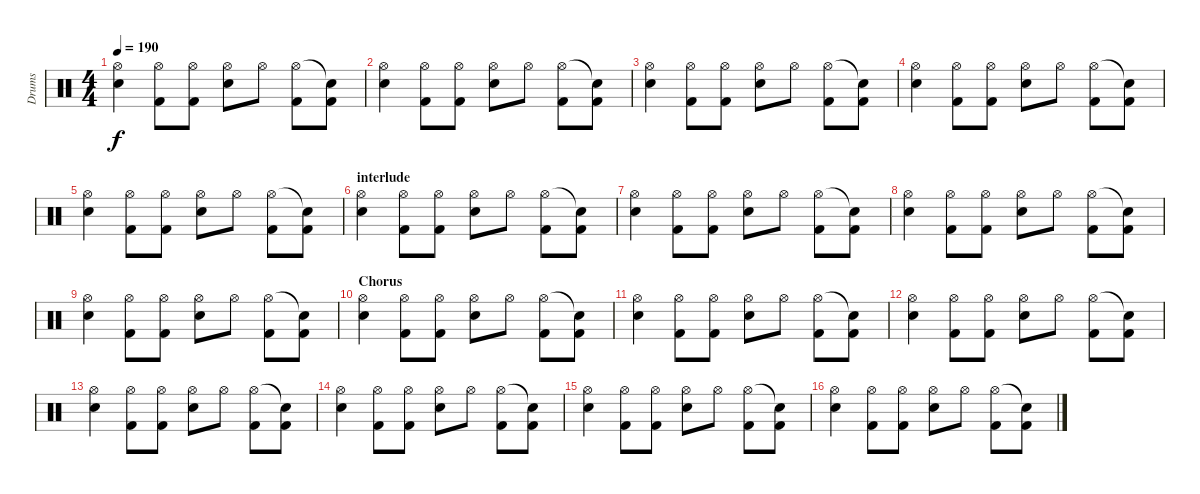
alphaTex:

\track ("Drums" "Drums") {instrument percussion}
\staff {score}
\articulation defaults
\ts (4 4)
\tempo 190
\clef neutral
\ks c
("Electric Snare (hit)" "Hi-Hat (open)").4{dy f} ("Hi-Hat (open)" "Kick (hit) 2").8 ("Hi-Hat (open)" "Kick (hit) 2").8 ("Hi-Hat (open)" "Electric Snare (hit)").8 "Hi-Hat (open)".8 ("Kick (hit) 2" "Hi-Hat (open)").8 ("Kick (hit) 2" "Snare (hit)"{t}).8 |
("Electric Snare (hit)" "Hi-Hat (open)").4 ("Hi-Hat (open)" "Kick (hit) 2").8 ("Hi-Hat (open)" "Kick (hit) 2").8 ("Hi-Hat (open)" "Electric Snare (hit)").8 "Hi-Hat (open)".8 ("Kick (hit) 2" "Hi-Hat (open)").8 ("Kick (hit) 2" "Snare (hit)"{t}).8 |
("Electric Snare (hit)" "Hi-Hat (open)").4 ("Hi-Hat (open)" "Kick (hit) 2").8 ("Hi-Hat (open)" "Kick (hit) 2").8 ("Hi-Hat (open)" "Electric Snare (hit)").8 "Hi-Hat (open)".8 ("Kick (hit) 2" "Hi-Hat (open)").8 ("Kick (hit) 2" "Snare (hit)"{t}).8 |
("Electric Snare (hit)" "Hi-Hat (open)").4 ("Hi-Hat (open)" "Kick (hit) 2").8 ("Hi-Hat (open)" "Kick (hit) 2").8 ("Hi-Hat (open)" "Electric Snare (hit)").8 "Hi-Hat (open)".8 ("Kick (hit) 2" "Hi-Hat (open)").8 ("Kick (hit) 2" "Snare (hit)"{t}).8 |
("Electric Snare (hit)" "Hi-Hat (open)").4 ("Hi-Hat (open)" "Kick (hit) 2").8 ("Hi-Hat (open)" "Kick (hit) 2").8 ("Hi-Hat (open)" "Electric Snare (hit)").8 "Hi-Hat (open)".8 ("Kick (hit) 2" "Hi-Hat (open)").8 ("Kick (hit) 2" "Snare (hit)"{t}).8 |
\section ("" "interlude")
("Electric Snare (hit)" "Hi-Hat (open)").4 ("Hi-Hat (open)" "Kick (hit) 2").8 ("Hi-Hat (open)" "Kick (hit) 2").8 ("Hi-Hat (open)" "Electric Snare (hit)").8 "Hi-Hat (open)".8 ("Kick (hit) 2" "Hi-Hat (open)").8 ("Kick (hit) 2" "Snare (hit)"{t}).8 |
("Electric Snare (hit)" "Hi-Hat (open)").4 ("Hi-Hat (open)" "Kick (hit) 2").8 ("Hi-Hat (open)" "Kick (hit) 2").8 ("Hi-Hat (open)" "Electric Snare (hit)").8 "Hi-Hat (open)".8 ("Kick (hit) 2" "Hi-Hat (open)").8 ("Kick (hit) 2" "Snare (hit)"{t}).8 |
("Electric Snare (hit)" "Hi-Hat (open)").4 ("Hi-Hat (open)" "Kick (hit) 2").8 ("Hi-Hat (open)" "Kick (hit) 2").8 ("Hi-Hat (open)" "Electric Snare (hit)").8 "Hi-Hat (open)".8 ("Kick (hit) 2" "Hi-Hat (open)").8 ("Kick (hit) 2" "Snare (hit)"{t}).8 |
("Electric Snare (hit)" "Hi-Hat (open)").4 ("Hi-Hat (open)" "Kick (hit) 2").8 ("Hi-Hat (open)" "Kick (hit) 2").8 ("Hi-Hat (open)" "Electric Snare (hit)").8 "Hi-Hat (open)".8 ("Kick (hit) 2" "Hi-Hat (open)").8 ("Kick (hit) 2" "Snare (hit)"{t}).8 |
\section ("" "Chorus")
("Electric Snare (hit)" "Hi-Hat (open)").4 ("Hi-Hat (open)" "Kick (hit) 2").8 ("Hi-Hat (open)" "Kick (hit) 2").8 ("Hi-Hat (open)" "Electric Snare (hit)").8 "Hi-Hat (open)".8 ("Kick (hit) 2" "Hi-Hat (open)").8 ("Kick (hit) 2" "Snare (hit)"{t}).8 |
("Electric Snare (hit)" "Hi-Hat (open)").4 ("Hi-Hat (open)" "Kick (hit) 2").8 ("Hi-Hat (open)" "Kick (hit) 2").8 ("Hi-Hat (open)" "Electric Snare (hit)").8 "Hi-Hat (open)".8 ("Kick (hit) 2" "Hi-Hat (open)").8 ("Kick (hit) 2" "Snare (hit)"{t}).8 |
("Electric Snare (hit)" "Hi-Hat (open)").4 ("Hi-Hat (open)" "Kick (hit) 2").8 ("Hi-Hat (open)" "Kick (hit) 2").8 ("Hi-Hat (open)" "Electric Snare (hit)").8 "Hi-Hat (open)".8 ("Kick (hit) 2" "Hi-Hat (open)").8 ("Kick (hit) 2" "Snare (hit)"{t}).8 |
("Electric Snare (hit)" "Hi-Hat (open)").4 ("Hi-Hat (open)" "Kick (hit) 2").8 ("Hi-Hat (open)" "Kick (hit) 2").8 ("Hi-Hat (open)" "Electric Snare (hit)").8 "Hi-Hat (open)".8 ("Kick (hit) 2" "Hi-Hat (open)").8 ("Kick (hit) 2" "Snare (hit)"{t}).8 |
("Electric Snare (hit)" "Hi-Hat (open)").4 ("Hi-Hat (open)" "Kick (hit) 2").8 ("Hi-Hat (open)" "Kick (hit) 2").8 ("Hi-Hat (open)" "Electric Snare (hit)").8 "Hi-Hat (open)".8 ("Kick (hit) 2" "Hi-Hat (open)").8 ("Kick (hit) 2" "Snare (hit)"{t}).8 |
("Electric Snare (hit)" "Hi-Hat (open)").4 ("Hi-Hat (open)" "Kick (hit) 2").8 ("Hi-Hat (open)" "Kick (hit) 2").8 ("Hi-Hat (open)" "Electric Snare (hit)").8 "Hi-Hat (open)".8 ("Kick (hit) 2" "Hi-Hat (open)").8 ("Kick (hit) 2" "Snare (hit)"{t}).8 |
("Electric Snare (hit)" "Hi-Hat (open)").4 ("Hi-Hat (open)" "Kick (hit) 2").8 ("Hi-Hat (open)" "Kick (hit) 2").8 ("Hi-Hat (open)" "Electric Snare (hit)").8 "Hi-Hat (open)".8 ("Kick (hit) 2" "Hi-Hat (open)").8 ("Kick (hit) 2" "Snare (hit)"{t}).8
